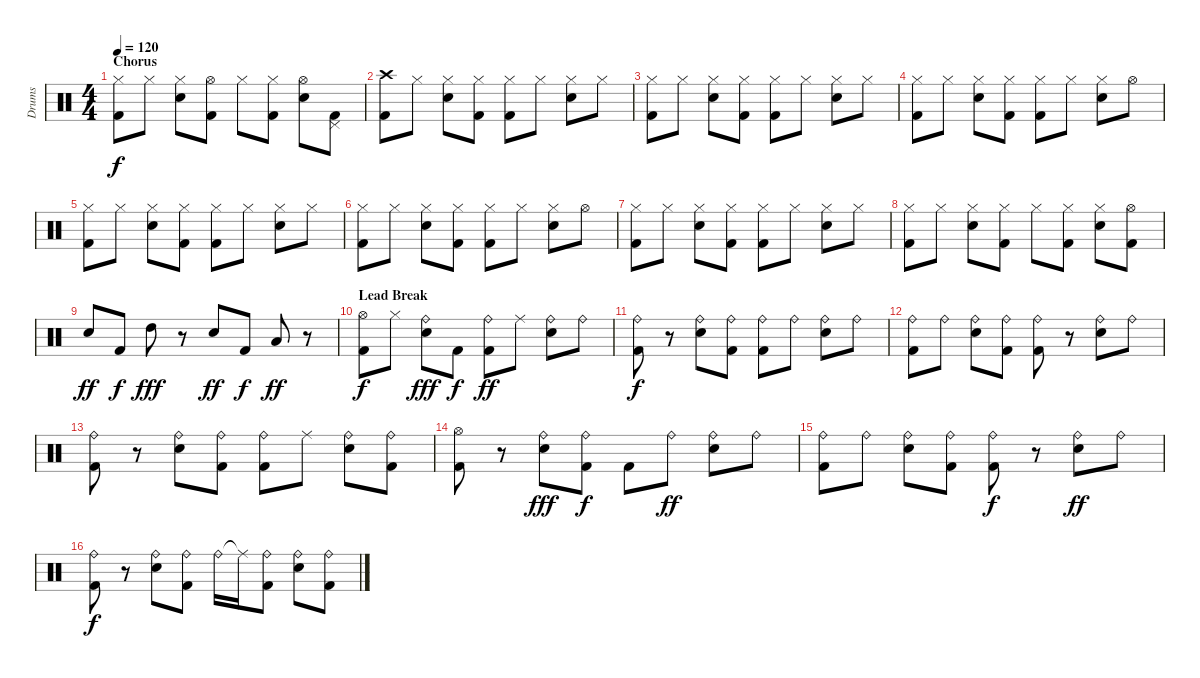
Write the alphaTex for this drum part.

\track ("Drums" "Drums") {instrument percussion}
\staff {score}
\articulation defaults
\ts (4 4)
\section ("" "Chorus")
\tempo 120
\clef neutral
\ks c
("Hi-Hat (closed)" "Kick (hit) 2").8{dy f} "Hi-Hat (closed)".8 ("Hi-Hat (closed)" "Snare (hit) 2").8 ("Hi-Hat (open)" "Kick (hit) 2").8 "Hi-Hat (closed)".8 ("Hi-Hat (closed)" "Kick (hit) 2").8 ("Hi-Hat (open)" "Snare (hit) 2").8 ("Pedal Hi-Hat (hit)" "Kick (hit) 2").8 |
("Crash high (hit)" "Kick (hit) 2").8 "Hi-Hat (closed)".8 ("Hi-Hat (closed)" "Snare (hit) 2").8 ("Hi-Hat (closed)" "Kick (hit) 2").8 ("Hi-Hat (closed)" "Kick (hit) 2").8 "Hi-Hat (closed)".8 ("Hi-Hat (closed)" "Snare (hit) 2").8 "Hi-Hat (closed)".8 |
("Hi-Hat (closed)" "Kick (hit) 2").8 "Hi-Hat (closed)".8 ("Hi-Hat (closed)" "Snare (hit) 2").8 ("Hi-Hat (closed)" "Kick (hit) 2").8 ("Hi-Hat (closed)" "Kick (hit) 2").8 "Hi-Hat (closed)".8 ("Hi-Hat (closed)" "Snare (hit) 2").8 "Hi-Hat (closed)".8 |
("Hi-Hat (closed)" "Kick (hit) 2").8 "Hi-Hat (closed)".8 ("Hi-Hat (closed)" "Snare (hit) 2").8 ("Hi-Hat (closed)" "Kick (hit) 2").8 ("Hi-Hat (closed)" "Kick (hit) 2").8 "Hi-Hat (closed)".8 ("Hi-Hat (closed)" "Snare (hit) 2").8 "Hi-Hat (open)".8 |
("Hi-Hat (closed)" "Kick (hit) 2").8 "Hi-Hat (closed)".8 ("Hi-Hat (closed)" "Snare (hit) 2").8 ("Hi-Hat (closed)" "Kick (hit) 2").8 ("Hi-Hat (closed)" "Kick (hit) 2").8 "Hi-Hat (closed)".8 ("Hi-Hat (closed)" "Snare (hit) 2").8 "Hi-Hat (closed)".8 |
("Hi-Hat (closed)" "Kick (hit) 2").8 "Hi-Hat (closed)".8 ("Hi-Hat (closed)" "Snare (hit) 2").8 ("Hi-Hat (closed)" "Kick (hit) 2").8 ("Hi-Hat (closed)" "Kick (hit) 2").8 "Hi-Hat (closed)".8 ("Hi-Hat (closed)" "Snare (hit) 2").8 "Hi-Hat (open)".8 |
("Hi-Hat (closed)" "Kick (hit) 2").8 "Hi-Hat (closed)".8 ("Hi-Hat (closed)" "Snare (hit) 2").8 ("Hi-Hat (closed)" "Kick (hit) 2").8 ("Hi-Hat (closed)" "Kick (hit) 2").8 "Hi-Hat (closed)".8 ("Hi-Hat (closed)" "Snare (hit) 2").8 "Hi-Hat (closed)".8 |
("Hi-Hat (closed)" "Kick (hit) 2").8 "Hi-Hat (closed)".8 ("Hi-Hat (closed)" "Snare (hit) 2").8 ("Hi-Hat (closed)" "Kick (hit) 2").8 "Hi-Hat (closed)".8 ("Hi-Hat (closed)" "Kick (hit) 2").8 ("Hi-Hat (closed)" "Snare (hit) 2").8 ("Hi-Hat (open)" "Kick (hit) 2").8 |
"Snare (hit) 2".8{dy ff} "Kick (hit) 2".8{dy f} "High Tom (hit)".8{dy fff} r.8 "Snare (hit) 2".8{dy ff} "Kick (hit) 2".8{dy f} "Low Tom (hit)".8{dy ff} r.8 |
\section ("" "Lead Break")
("Hi-Hat (open)" "Kick (hit) 2").8{dy f} "Hi-Hat (closed)".8 ("Ride (bell)" "Snare (hit) 2").8{dy fff} "Kick (hit) 2".8{dy f} ("Ride (bell)" "Kick (hit) 2").8{dy ff} "Ride (middle)".8 ("Ride (bell)" "Snare (hit) 2").8 "Ride (bell)".8 |
("Ride (bell)" "Kick (hit) 2").8{dy f} r.8 ("Ride (bell)" "Snare (hit) 2").8 ("Ride (bell)" "Kick (hit) 2").8 ("Ride (bell)" "Kick (hit) 2").8 "Ride (bell)".8 ("Ride (bell)" "Snare (hit) 2").8 "Ride (bell)".8 |
("Ride (bell)" "Kick (hit) 2").8 "Ride (bell)".8 ("Ride (bell)" "Snare (hit) 2").8 ("Ride (bell)" "Kick (hit) 2").8 ("Ride (bell)" "Kick (hit) 2").8 r.8 ("Ride (bell)" "Snare (hit) 2").8 "Ride (bell)".8 |
("Ride (bell)" "Kick (hit) 2").8 r.8 ("Ride (bell)" "Snare (hit) 2").8 ("Ride (bell)" "Kick (hit) 2").8 ("Ride (bell)" "Kick (hit) 2").8 "Ride (middle)".8 ("Ride (bell)" "Snare (hit) 2").8 ("Ride (bell)" "Kick (hit) 2").8 |
("Hi-Hat (open)" "Kick (hit) 2").8 r.8 ("Ride (bell)" "Snare (hit) 2").8{dy fff} ("Ride (bell)" "Kick (hit) 2").8{dy f} "Kick (hit) 2".8 "Ride (bell)".8{dy ff} ("Ride (bell)" "Snare (hit) 2").8 "Ride (bell)".8 |
("Ride (bell)" "Kick (hit) 2").8 "Ride (bell)".8 ("Ride (bell)" "Snare (hit) 2").8 ("Ride (bell)" "Kick (hit) 2").8 ("Ride (bell)" "Kick (hit) 2").8{dy f} r.8 ("Ride (bell)" "Snare (hit) 2").8{dy ff} "Ride (bell)".8 |
("Ride (bell)" "Kick (hit) 2").8{dy f} r.8 ("Ride (bell)" "Snare (hit) 2").8 ("Ride (bell)" "Kick (hit) 2").8 "Ride (bell)".16 "Ride (middle)"{t}.16 ("Ride (bell)" "Kick (hit) 2").8 ("Ride (bell)" "Snare (hit) 2").8 ("Ride (bell)" "Kick (hit) 2").8
